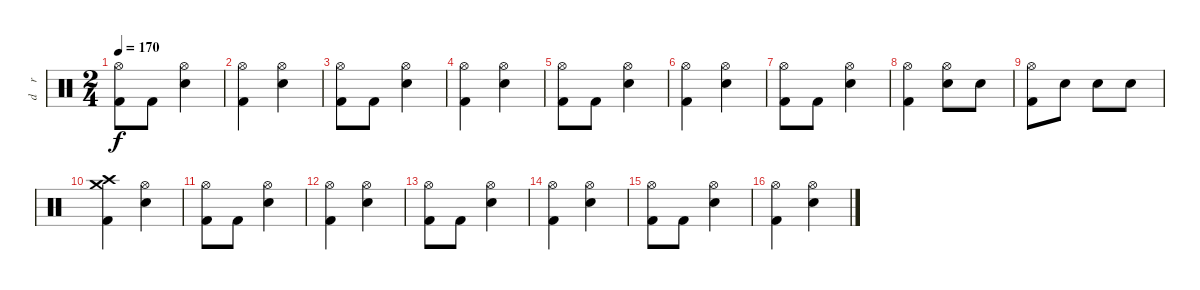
\track ("d    r     u     m    s" "d    r    ") {instrument percussion}
\staff {score}
\articulation defaults
\ts (2 4)
\tempo 170
\clef neutral
\ks c
("Hi-Hat (open)" "Kick (hit) 2").8{dy f} "Kick (hit) 2".8 ("Hi-Hat (open)" "Electric Snare (hit)").4 |
("Hi-Hat (open)" "Kick (hit) 2").4 ("Hi-Hat (open)" "Electric Snare (hit)").4 |
("Hi-Hat (open)" "Kick (hit) 2").8 "Kick (hit) 2".8 ("Hi-Hat (open)" "Electric Snare (hit)").4 |
("Hi-Hat (open)" "Kick (hit) 2").4 ("Hi-Hat (open)" "Electric Snare (hit)").4 |
("Hi-Hat (open)" "Kick (hit) 2").8 "Kick (hit) 2".8 ("Hi-Hat (open)" "Electric Snare (hit)").4 |
("Hi-Hat (open)" "Kick (hit) 2").4 ("Hi-Hat (open)" "Electric Snare (hit)").4 |
("Hi-Hat (open)" "Kick (hit) 2").8 "Kick (hit) 2".8 ("Hi-Hat (open)" "Electric Snare (hit)").4 |
("Hi-Hat (open)" "Kick (hit) 2").4 ("Hi-Hat (open)" "Electric Snare (hit)").8 "Electric Snare (hit)".8 |
("Hi-Hat (open)" "Kick (hit) 2").8 "Electric Snare (hit)".8 "Electric Snare (hit)".8 "Electric Snare (hit)".8 |
("Crash high (hit)" "Crash medium (hit)" "Kick (hit) 2").4 ("Hi-Hat (open)" "Electric Snare (hit)").4 |
("Hi-Hat (open)" "Kick (hit) 2").8 "Kick (hit) 2".8 ("Hi-Hat (open)" "Electric Snare (hit)").4 |
("Hi-Hat (open)" "Kick (hit) 2").4 ("Hi-Hat (open)" "Electric Snare (hit)").4 |
("Hi-Hat (open)" "Kick (hit) 2").8 "Kick (hit) 2".8 ("Hi-Hat (open)" "Electric Snare (hit)").4 |
("Hi-Hat (open)" "Kick (hit) 2").4 ("Hi-Hat (open)" "Electric Snare (hit)").4 |
("Hi-Hat (open)" "Kick (hit) 2").8 "Kick (hit) 2".8 ("Hi-Hat (open)" "Electric Snare (hit)").4 |
("Hi-Hat (open)" "Kick (hit) 2").4 ("Hi-Hat (open)" "Electric Snare (hit)").4
